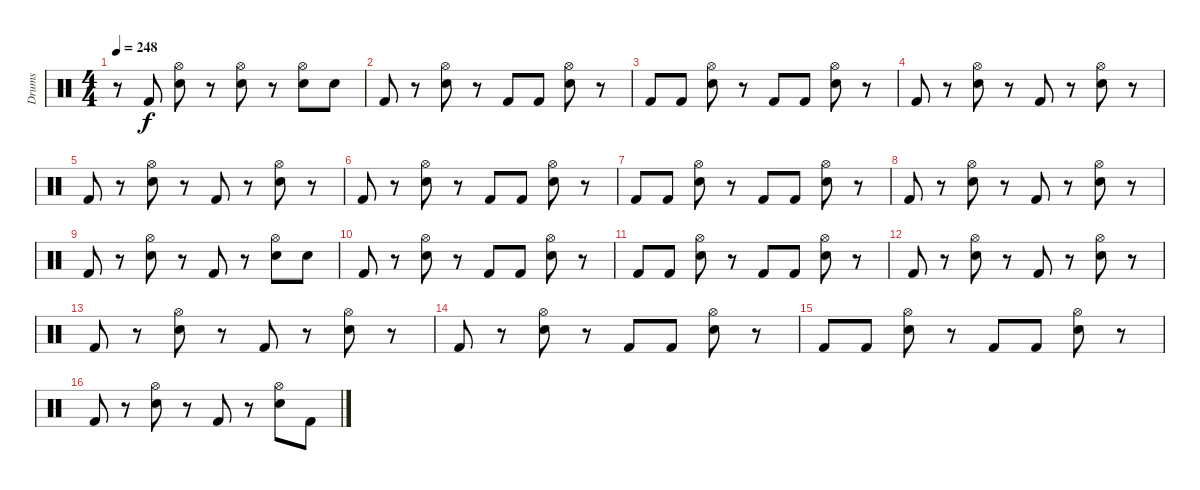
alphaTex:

\track ("Drums" "Drums") {instrument percussion}
\staff {score}
\articulation defaults
\ts (4 4)
\tempo 248
\clef neutral
\ks c
r.8{dy f} "Kick (hit) 2".8 ("Hi-Hat (open)" "Electric Snare (hit)").8 r.8 ("Hi-Hat (open)" "Electric Snare (hit)").8 r.8 ("Hi-Hat (open)" "Electric Snare (hit)").8 "Electric Snare (hit)".8 |
"Kick (hit) 2".8 r.8 ("Electric Snare (hit)" "Hi-Hat (open)").8 r.8 "Kick (hit) 2".8 "Kick (hit) 2".8 ("Electric Snare (hit)" "Hi-Hat (open)").8 r.8 |
"Kick (hit) 2".8 "Kick (hit) 2".8 ("Electric Snare (hit)" "Hi-Hat (open)").8 r.8 "Kick (hit) 2".8 "Kick (hit) 2".8 ("Electric Snare (hit)" "Hi-Hat (open)").8 r.8 |
"Kick (hit) 2".8 r.8 ("Electric Snare (hit)" "Hi-Hat (open)").8 r.8 "Kick (hit) 2".8 r.8 ("Electric Snare (hit)" "Hi-Hat (open)").8 r.8 |
"Kick (hit) 2".8 r.8 ("Electric Snare (hit)" "Hi-Hat (open)").8 r.8 "Kick (hit) 2".8 r.8 ("Electric Snare (hit)" "Hi-Hat (open)").8 r.8 |
"Kick (hit) 2".8 r.8 ("Electric Snare (hit)" "Hi-Hat (open)").8 r.8 "Kick (hit) 2".8 "Kick (hit) 2".8 ("Electric Snare (hit)" "Hi-Hat (open)").8 r.8 |
"Kick (hit) 2".8 "Kick (hit) 2".8 ("Electric Snare (hit)" "Hi-Hat (open)").8 r.8 "Kick (hit) 2".8 "Kick (hit) 2".8 ("Electric Snare (hit)" "Hi-Hat (open)").8 r.8 |
"Kick (hit) 2".8 r.8 ("Electric Snare (hit)" "Hi-Hat (open)").8 r.8 "Kick (hit) 2".8 r.8 ("Electric Snare (hit)" "Hi-Hat (open)").8 r.8 |
"Kick (hit) 2".8 r.8 ("Electric Snare (hit)" "Hi-Hat (open)").8 r.8 "Kick (hit) 2".8 r.8 ("Electric Snare (hit)" "Hi-Hat (open)").8 "Electric Snare (hit)".8 |
"Kick (hit) 2".8 r.8 ("Electric Snare (hit)" "Hi-Hat (open)").8 r.8 "Kick (hit) 2".8 "Kick (hit) 2".8 ("Electric Snare (hit)" "Hi-Hat (open)").8 r.8 |
"Kick (hit) 2".8 "Kick (hit) 2".8 ("Electric Snare (hit)" "Hi-Hat (open)").8 r.8 "Kick (hit) 2".8 "Kick (hit) 2".8 ("Electric Snare (hit)" "Hi-Hat (open)").8 r.8 |
"Kick (hit) 2".8 r.8 ("Electric Snare (hit)" "Hi-Hat (open)").8 r.8 "Kick (hit) 2".8 r.8 ("Electric Snare (hit)" "Hi-Hat (open)").8 r.8 |
"Kick (hit) 2".8 r.8 ("Electric Snare (hit)" "Hi-Hat (open)").8 r.8 "Kick (hit) 2".8 r.8 ("Electric Snare (hit)" "Hi-Hat (open)").8 r.8 |
"Kick (hit) 2".8 r.8 ("Electric Snare (hit)" "Hi-Hat (open)").8 r.8 "Kick (hit) 2".8 "Kick (hit) 2".8 ("Electric Snare (hit)" "Hi-Hat (open)").8 r.8 |
"Kick (hit) 2".8 "Kick (hit) 2".8 ("Electric Snare (hit)" "Hi-Hat (open)").8 r.8 "Kick (hit) 2".8 "Kick (hit) 2".8 ("Electric Snare (hit)" "Hi-Hat (open)").8 r.8 |
"Kick (hit) 2".8 r.8 ("Electric Snare (hit)" "Hi-Hat (open)").8 r.8 "Kick (hit) 2".8 r.8 ("Electric Snare (hit)" "Hi-Hat (open)").8 "Kick (hit) 2".8
